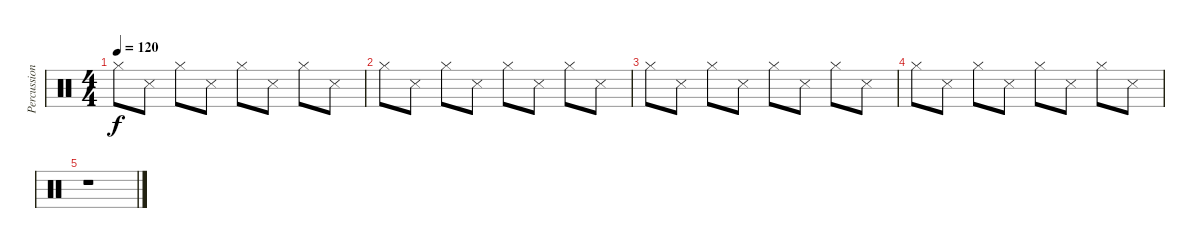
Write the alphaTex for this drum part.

\track ("Percussion" "Percussion") {instrument percussion}
\staff {score}
\articulation defaults
\ts (4 4)
\tempo 120
\clef neutral
\ks c "Hi-Hat (closed)".8{dy f} "Snare (side stick) 3".8 "Hi-Hat (closed)".8 "Snare (side stick) 3".8 "Hi-Hat (closed)".8 "Snare (side stick) 3".8 "Hi-Hat (closed)".8 "Snare (side stick) 3".8
|
"Hi-Hat (closed)".8 "Snare (side stick) 3".8 "Hi-Hat (closed)".8 "Snare (side stick) 3".8 "Hi-Hat (closed)".8 "Snare (side stick) 3".8 "Hi-Hat (closed)".8 "Snare (side stick) 3".8 |
"Hi-Hat (closed)".8 "Snare (side stick) 3".8 "Hi-Hat (closed)".8 "Snare (side stick) 3".8 "Hi-Hat (closed)".8 "Snare (side stick) 3".8 "Hi-Hat (closed)".8 "Snare (side stick) 3".8 |
"Hi-Hat (closed)".8 "Snare (side stick) 3".8 "Hi-Hat (closed)".8 "Snare (side stick) 3".8 "Hi-Hat (closed)".8 "Snare (side stick) 3".8 "Hi-Hat (closed)".8 "Snare (side stick) 3".8 |
r.1
